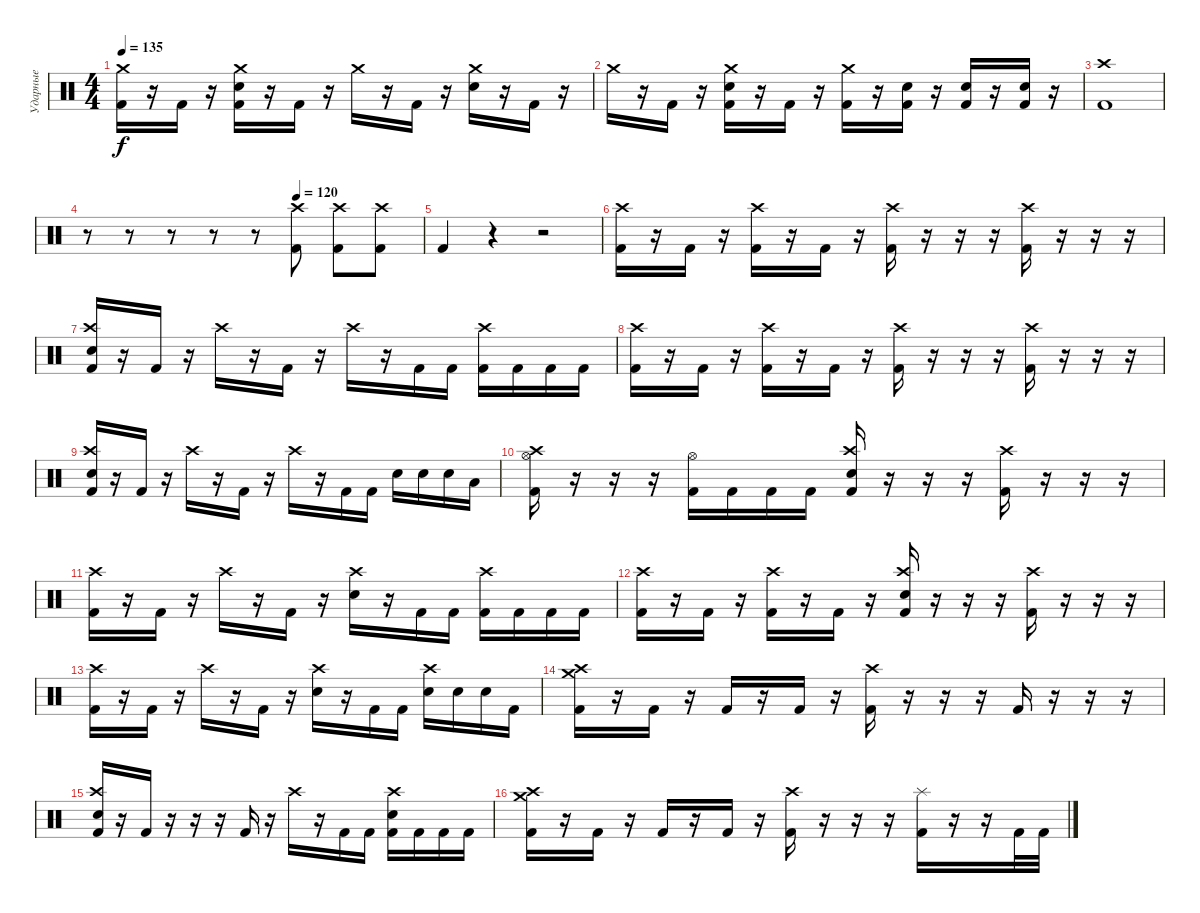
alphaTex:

\track ("Ударные" "Ударные") {instrument percussion}
\staff {score}
\articulation defaults
\ts (4 4)
\tempo 135
\clef neutral
\ks c
("Crash medium (hit)" "Kick (hit) 2").16{dy f} r.16 "Kick (hit) 2".16 r.16 ("Crash medium (hit)" "Electric Snare (hit)" "Kick (hit) 2").16 r.16 "Kick (hit) 2".16 r.16 "Crash medium (hit)".16 r.16 "Kick (hit) 2".16 r.16 ("Crash medium (hit)" "Electric Snare (hit)").16 r.16 "Kick (hit) 2".16 r.16 |
"Crash medium (hit)".16 r.16 "Kick (hit) 2".16 r.16 ("Crash medium (hit)" "Electric Snare (hit)" "Kick (hit) 2").16 r.16 "Kick (hit) 2".16 r.16 ("Crash medium (hit)" "Kick (hit) 2").16 r.16 ("Electric Snare (hit)" "Kick (hit) 2").16 r.16 ("Electric Snare (hit)" "Kick (hit) 2").16 r.16 ("Electric Snare (hit)" "Kick (hit) 2").16 r.16 |
("Crash high (hit)" "Kick (hit) 2").1 |
\tempo (120 0.625)
r.8 r.8 r.8 r.8 r.8 ("Crash high (hit)" "Kick (hit) 2").8 ("Crash high (hit)" "Kick (hit) 2").8 ("Crash high (hit)" "Kick (hit) 2").8 |
"Kick (hit) 2".4 r.4 r.2 |
("Crash high (hit)" "Kick (hit) 2").16 r.16 "Kick (hit) 2".16 r.16 ("Crash high (hit)" "Kick (hit) 2").16 r.16 "Kick (hit) 2".16 r.16 ("Crash high (hit)" "Kick (hit) 2").16 r.16 r.16 r.16 ("Crash high (hit)" "Kick (hit) 2").16 r.16 r.16 r.16 |
("Crash high (hit)" "Snare (hit) 2" "Kick (hit) 2").16 r.16 "Kick (hit) 2".16 r.16 "Crash high (hit)".16 r.16 "Kick (hit) 2".16 r.16 "Crash high (hit)".16 r.16 "Kick (hit) 2".16 "Kick (hit) 2".16 ("Crash high (hit)" "Kick (hit) 2").16 "Kick (hit) 2".16 "Kick (hit) 2".16 "Kick (hit) 2".16 |
("Crash high (hit)" "Kick (hit) 2").16 r.16 "Kick (hit) 2".16 r.16 ("Crash high (hit)" "Kick (hit) 2").16 r.16 "Kick (hit) 2".16 r.16 ("Crash high (hit)" "Kick (hit) 2").16 r.16 r.16 r.16 ("Crash high (hit)" "Kick (hit) 2").16 r.16 r.16 r.16 |
("Crash high (hit)" "Snare (hit) 2" "Kick (hit) 2").16 r.16 "Kick (hit) 2".16 r.16 "Crash high (hit)".16 r.16 "Kick (hit) 2".16 r.16 "Crash high (hit)".16 r.16 "Kick (hit) 2".16 "Kick (hit) 2".16 "Electric Snare (hit)".16 "Electric Snare (hit)".16 "Electric Snare (hit)".16 "Low Tom (hit)".16 |
("Hi-Hat (open)" "Crash high (hit)" "Kick (hit) 2").16 r.16 r.16 r.16 ("Hi-Hat (open)" "Kick (hit) 2").16 "Kick (hit) 2".16 "Kick (hit) 2".16 "Kick (hit) 2".16 ("Crash high (hit)" "Snare (hit) 2" "Kick (hit) 2").16 r.16 r.16 r.16 ("Crash high (hit)" "Kick (hit) 2").16 r.16 r.16 r.16 |
("Crash high (hit)" "Kick (hit) 2").16 r.16 "Kick (hit) 2".16 r.16 "Crash high (hit)".16 r.16 "Kick (hit) 2".16 r.16 ("Crash high (hit)" "Electric Snare (hit)").16 r.16 "Kick (hit) 2".16 "Kick (hit) 2".16 ("Crash high (hit)" "Kick (hit) 2").16 "Kick (hit) 2".16 "Kick (hit) 2".16 "Kick (hit) 2".16 |
("Crash high (hit)" "Kick (hit) 2").16 r.16 "Kick (hit) 2".16 r.16 ("Crash high (hit)" "Kick (hit) 2").16 r.16 "Kick (hit) 2".16 r.16 ("Crash high (hit)" "Snare (hit) 2" "Kick (hit) 2").16 r.16 r.16 r.16 ("Crash high (hit)" "Kick (hit) 2").16 r.16 r.16 r.16 |
("Crash high (hit)" "Kick (hit) 2").16 r.16 "Kick (hit) 2".16 r.16 "Crash high (hit)".16 r.16 "Kick (hit) 2".16 r.16 ("Crash high (hit)" "Electric Snare (hit)").16 r.16 "Kick (hit) 2".16 "Kick (hit) 2".16 ("Crash high (hit)" "Electric Snare (hit)").16 "Electric Snare (hit)".16 "Electric Snare (hit)".16 "Kick (hit) 2".16 |
("Crash medium (hit)" "Crash high (hit)" "Kick (hit) 2").16 r.16 "Kick (hit) 2".16 r.16 "Kick (hit) 2".16 r.16 "Kick (hit) 2".16 r.16 ("Crash high (hit)" "Kick (hit) 2").16 r.16 r.16 r.16 "Kick (hit) 2".16 r.16 r.16 r.16 |
("Crash high (hit)" "Snare (hit) 2" "Kick (hit) 2").16 r.16 "Kick (hit) 2".16 r.16 r.16 r.16 "Kick (hit) 2".16 r.16 "Crash high (hit)".16 r.16 "Kick (hit) 2".16 "Kick (hit) 2".16 ("Crash high (hit)" "Electric Snare (hit)" "Kick (hit) 2").16 "Kick (hit) 2".16 "Kick (hit) 2".16 "Kick (hit) 2".16 |
("Crash medium (hit)" "Crash high (hit)" "Kick (hit) 2").16 r.16 "Kick (hit) 2".16 r.16 "Kick (hit) 2".16 r.16 "Kick (hit) 2".16 r.16 ("Crash high (hit)" "Kick (hit) 2").16 r.16 r.16 r.16 ("Splash (hit)" "Kick (hit) 2").16 r.16 r.16 "Kick (hit) 2".32 "Kick (hit) 2".32
